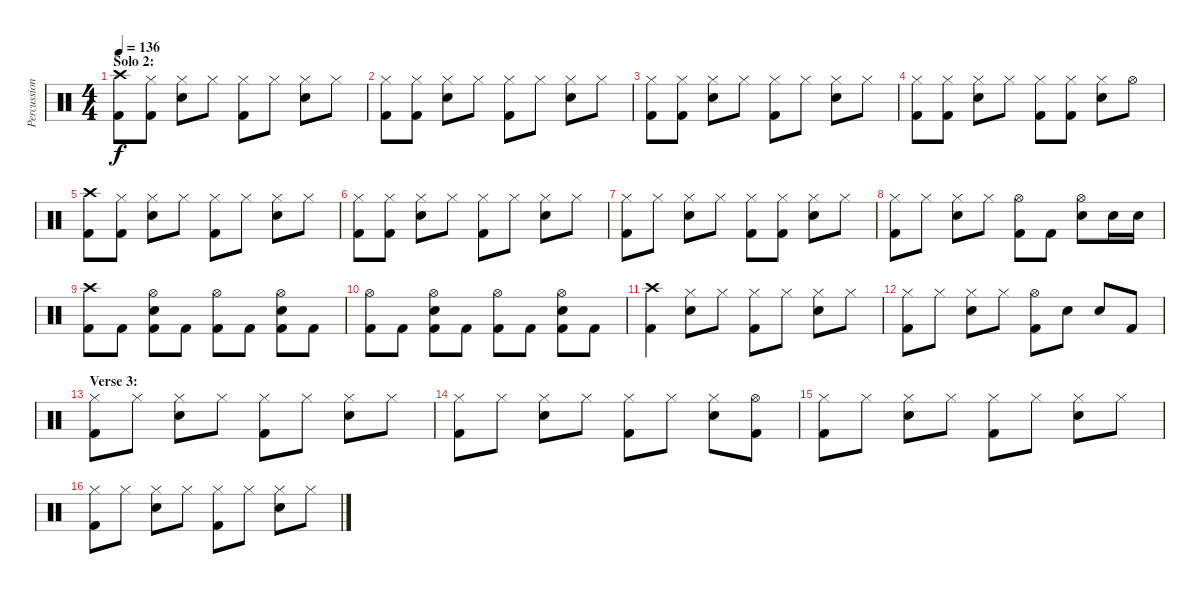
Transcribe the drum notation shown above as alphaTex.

\track ("Percussion" "Percussion") {instrument percussion}
\staff {score}
\articulation defaults
\ts (4 4)
\section ("" "Solo 2:")
\tempo 136
\clef neutral
\ks c
("Crash high (hit)" "Kick (hit) 2").8{dy f} ("Hi-Hat (closed)" "Kick (hit) 2").8 ("Hi-Hat (closed)" "Electric Snare (hit)").8 "Hi-Hat (closed)".8 ("Hi-Hat (closed)" "Kick (hit) 2").8 "Hi-Hat (closed)".8 ("Hi-Hat (closed)" "Electric Snare (hit)").8 "Hi-Hat (closed)".8 |
("Hi-Hat (closed)" "Kick (hit) 2").8 ("Hi-Hat (closed)" "Kick (hit) 2").8 ("Hi-Hat (closed)" "Electric Snare (hit)").8 "Hi-Hat (closed)".8 ("Hi-Hat (closed)" "Kick (hit) 2").8 "Hi-Hat (closed)".8 ("Hi-Hat (closed)" "Electric Snare (hit)").8 "Hi-Hat (closed)".8 |
("Hi-Hat (closed)" "Kick (hit) 2").8 ("Hi-Hat (closed)" "Kick (hit) 2").8 ("Hi-Hat (closed)" "Electric Snare (hit)").8 "Hi-Hat (closed)".8 ("Hi-Hat (closed)" "Kick (hit) 2").8 "Hi-Hat (closed)".8 ("Hi-Hat (closed)" "Electric Snare (hit)").8 "Hi-Hat (closed)".8 |
("Hi-Hat (closed)" "Kick (hit) 2").8 ("Hi-Hat (closed)" "Kick (hit) 2").8 ("Hi-Hat (closed)" "Electric Snare (hit)").8 "Hi-Hat (closed)".8 ("Hi-Hat (closed)" "Kick (hit) 2").8 ("Hi-Hat (closed)" "Kick (hit) 2").8 ("Hi-Hat (closed)" "Electric Snare (hit)").8 "Hi-Hat (open)".8 |
("Crash high (hit)" "Kick (hit) 2").8 ("Hi-Hat (closed)" "Kick (hit) 2").8 ("Hi-Hat (closed)" "Electric Snare (hit)").8 "Hi-Hat (closed)".8 ("Hi-Hat (closed)" "Kick (hit) 2").8 "Hi-Hat (closed)".8 ("Hi-Hat (closed)" "Electric Snare (hit)").8 "Hi-Hat (closed)".8 |
("Hi-Hat (closed)" "Kick (hit) 2").8 ("Hi-Hat (closed)" "Kick (hit) 2").8 ("Hi-Hat (closed)" "Electric Snare (hit)").8 "Hi-Hat (closed)".8 ("Hi-Hat (closed)" "Kick (hit) 2").8 "Hi-Hat (closed)".8 ("Hi-Hat (closed)" "Electric Snare (hit)").8 "Hi-Hat (closed)".8 |
("Hi-Hat (closed)" "Kick (hit) 2").8 "Hi-Hat (closed)".8 ("Hi-Hat (closed)" "Electric Snare (hit)").8 "Hi-Hat (closed)".8 ("Hi-Hat (closed)" "Kick (hit) 2").8 ("Hi-Hat (closed)" "Kick (hit) 2").8 ("Hi-Hat (closed)" "Electric Snare (hit)").8 "Hi-Hat (closed)".8 |
("Hi-Hat (closed)" "Kick (hit) 2").8 "Hi-Hat (closed)".8 ("Hi-Hat (closed)" "Electric Snare (hit)").8 "Hi-Hat (closed)".8 ("Hi-Hat (open)" "Kick (hit) 2").8 "Kick (hit) 2".8 ("Hi-Hat (open)" "Electric Snare (hit)").8 "Electric Snare (hit)".16 "Electric Snare (hit)".16 |
("Crash high (hit)" "Kick (hit) 2").8 "Kick (hit) 2".8 ("Hi-Hat (open)" "Electric Snare (hit)" "Kick (hit) 2").8 "Kick (hit) 2".8 ("Hi-Hat (open)" "Kick (hit) 2").8 "Kick (hit) 2".8 ("Hi-Hat (open)" "Electric Snare (hit)" "Kick (hit) 2").8 "Kick (hit) 2".8 |
("Hi-Hat (open)" "Kick (hit) 2").8 "Kick (hit) 2".8 ("Hi-Hat (open)" "Electric Snare (hit)" "Kick (hit) 2").8 "Kick (hit) 2".8 ("Hi-Hat (open)" "Kick (hit) 2").8 "Kick (hit) 2".8 ("Hi-Hat (open)" "Electric Snare (hit)" "Kick (hit) 2").8 "Kick (hit) 2".8 |
("Crash high (hit)" "Kick (hit) 2").4 ("Hi-Hat (closed)" "Electric Snare (hit)").8 "Hi-Hat (closed)".8 ("Hi-Hat (closed)" "Kick (hit) 2").8 "Hi-Hat (closed)".8 ("Hi-Hat (closed)" "Electric Snare (hit)").8 "Hi-Hat (closed)".8 |
("Hi-Hat (closed)" "Kick (hit) 2").8 "Hi-Hat (closed)".8 ("Hi-Hat (closed)" "Electric Snare (hit)").8 "Hi-Hat (closed)".8 ("Hi-Hat (open)" "Kick (hit) 2").8 "Electric Snare (hit)".8 "Electric Snare (hit)".8 "Kick (hit) 2".8 |
\section ("" "Verse 3:")
("Hi-Hat (closed)" "Kick (hit) 2").8 "Hi-Hat (closed)".8 ("Hi-Hat (closed)" "Electric Snare (hit)").8 "Hi-Hat (closed)".8 ("Hi-Hat (closed)" "Kick (hit) 2").8 "Hi-Hat (closed)".8 ("Hi-Hat (closed)" "Electric Snare (hit)").8 "Hi-Hat (closed)".8 |
("Hi-Hat (closed)" "Kick (hit) 2").8 "Hi-Hat (closed)".8 ("Hi-Hat (closed)" "Electric Snare (hit)").8 "Hi-Hat (closed)".8 ("Hi-Hat (closed)" "Kick (hit) 2").8 "Hi-Hat (closed)".8 ("Hi-Hat (closed)" "Electric Snare (hit)").8 ("Hi-Hat (open)" "Kick (hit) 2").8 |
("Hi-Hat (closed)" "Kick (hit) 2").8 "Hi-Hat (closed)".8 ("Hi-Hat (closed)" "Electric Snare (hit)").8 "Hi-Hat (closed)".8 ("Hi-Hat (closed)" "Kick (hit) 2").8 "Hi-Hat (closed)".8 ("Hi-Hat (closed)" "Electric Snare (hit)").8 "Hi-Hat (closed)".8 |
("Hi-Hat (closed)" "Kick (hit) 2").8 "Hi-Hat (closed)".8 ("Hi-Hat (closed)" "Electric Snare (hit)").8 "Hi-Hat (closed)".8 ("Hi-Hat (closed)" "Kick (hit) 2").8 "Hi-Hat (closed)".8 ("Hi-Hat (closed)" "Electric Snare (hit)").8 "Hi-Hat (closed)".8
